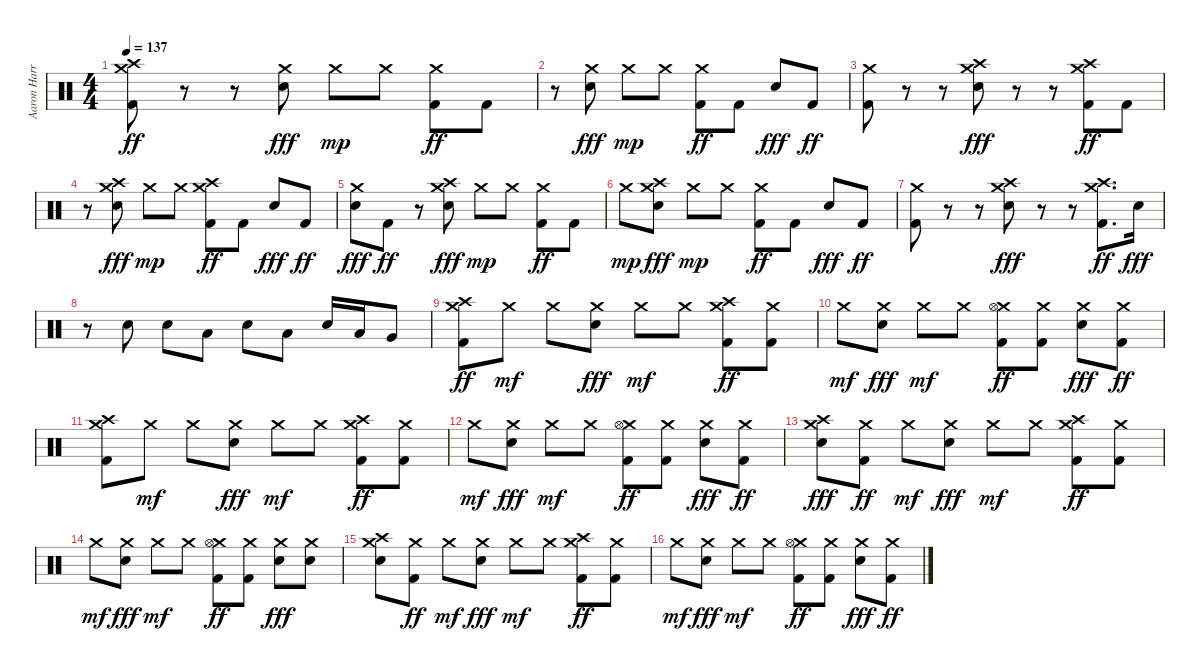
\track ("Aaron Harris" "Aaron Harr") {instrument percussion}
\staff {score}
\articulation defaults
\ts (4 4)
\tempo 137
\clef neutral
\ks c
("Crash medium (hit)" "Crash high (hit)" "Kick (hit) 2").8{dy ff} r.8 r.8 ("Crash medium (hit)" "Electric Snare (hit)").8{dy fff} "Crash medium (hit)".8{dy mp} "Crash medium (hit)".8 ("Crash medium (hit)" "Kick (hit) 2").8{dy ff} "Kick (hit) 2".8 |
r.8 ("Crash medium (hit)" "Electric Snare (hit)").8{dy fff} "Crash medium (hit)".8{dy mp} "Crash medium (hit)".8 ("Crash medium (hit)" "Kick (hit) 2").8{dy ff} "Kick (hit) 2".8 "Electric Snare (hit)".8{dy fff} "Kick (hit) 2".8{dy ff} |
("Crash medium (hit)" "Kick (hit) 2").8 r.8 r.8 ("Crash medium (hit)" "Crash high (hit)" "Electric Snare (hit)").8{dy fff} r.8 r.8 ("Crash medium (hit)" "Crash high (hit)" "Kick (hit) 2").8{dy ff} "Kick (hit) 2".8 |
r.8 ("Crash medium (hit)" "Crash high (hit)" "Electric Snare (hit)").8{dy fff} "Crash medium (hit)".8{dy mp} "Crash medium (hit)".8 ("Crash medium (hit)" "Crash high (hit)" "Kick (hit) 2").8{dy ff} "Kick (hit) 2".8 "Electric Snare (hit)".8{dy fff} "Kick (hit) 2".8{dy ff} |
("Crash medium (hit)" "Electric Snare (hit)").8{dy fff} "Kick (hit) 2".8{dy ff} r.8 ("Crash medium (hit)" "Crash high (hit)" "Electric Snare (hit)").8{dy fff} "Crash medium (hit)".8{dy mp} "Crash medium (hit)".8 ("Crash medium (hit)" "Kick (hit) 2").8{dy ff} "Kick (hit) 2".8 |
"Crash medium (hit)".8{dy mp} ("Crash medium (hit)" "Crash high (hit)" "Electric Snare (hit)").8{dy fff} "Crash medium (hit)".8{dy mp} "Crash medium (hit)".8 ("Crash medium (hit)" "Kick (hit) 2").8{dy ff} "Kick (hit) 2".8 "Electric Snare (hit)".8{dy fff} "Kick (hit) 2".8{dy ff} |
("Crash medium (hit)" "Kick (hit) 2").8 r.8 r.8 ("Crash medium (hit)" "Crash high (hit)" "Electric Snare (hit)").8{dy fff} r.8 r.8 ("Crash medium (hit)" "Crash high (hit)" "Kick (hit) 2").8{d dy ff} "Electric Snare (hit)".16{dy fff} |
r.8 "Electric Snare (hit)".8 "Electric Snare (hit)".8 "Low Tom (hit)".8 "Electric Snare (hit)".8 "Low Tom (hit)".8 "Electric Snare (hit)".16 "Low Tom (hit)".16 "Very Low Tom (hit)".8 |
("Crash medium (hit)" "Crash high (hit)" "Kick (hit) 2").8{dy ff} "Crash medium (hit)".8{dy mf} "Crash medium (hit)".8 ("Crash medium (hit)" "Electric Snare (hit)").8{dy fff} "Crash medium (hit)".8{dy mf} "Crash medium (hit)".8 ("Crash medium (hit)" "Crash high (hit)" "Kick (hit) 2").8{dy ff} ("Crash medium (hit)" "Kick (hit) 2").8 |
"Crash medium (hit)".8{dy mf} ("Crash medium (hit)" "Electric Snare (hit)").8{dy fff} "Crash medium (hit)".8{dy mf} "Crash medium (hit)".8 ("Crash medium (hit)" "Hi-Hat (open)" "Kick (hit) 2").8{dy ff} ("Crash medium (hit)" "Kick (hit) 2").8 ("Crash medium (hit)" "Electric Snare (hit)").8{dy fff} ("Crash medium (hit)" "Kick (hit) 2").8{dy ff} |
("Crash medium (hit)" "Crash high (hit)" "Kick (hit) 2").8 "Crash medium (hit)".8{dy mf} "Crash medium (hit)".8 ("Crash medium (hit)" "Electric Snare (hit)").8{dy fff} "Crash medium (hit)".8{dy mf} "Crash medium (hit)".8 ("Crash medium (hit)" "Crash high (hit)" "Kick (hit) 2").8{dy ff} ("Crash medium (hit)" "Kick (hit) 2").8 |
"Crash medium (hit)".8{dy mf} ("Crash medium (hit)" "Electric Snare (hit)").8{dy fff} "Crash medium (hit)".8{dy mf} "Crash medium (hit)".8 ("Crash medium (hit)" "Hi-Hat (open)" "Kick (hit) 2").8{dy ff} ("Crash medium (hit)" "Kick (hit) 2").8 ("Crash medium (hit)" "Electric Snare (hit)").8{dy fff} ("Crash medium (hit)" "Kick (hit) 2").8{dy ff} |
("Crash medium (hit)" "Crash high (hit)" "Electric Snare (hit)").8{dy fff} ("Crash medium (hit)" "Kick (hit) 2").8{dy ff} "Crash medium (hit)".8{dy mf} ("Crash medium (hit)" "Electric Snare (hit)").8{dy fff} "Crash medium (hit)".8{dy mf} "Crash medium (hit)".8 ("Crash medium (hit)" "Crash high (hit)" "Kick (hit) 2").8{dy ff} ("Crash medium (hit)" "Kick (hit) 2").8 |
"Crash medium (hit)".8{dy mf} ("Crash medium (hit)" "Electric Snare (hit)").8{dy fff} "Crash medium (hit)".8{dy mf} "Crash medium (hit)".8 ("Crash medium (hit)" "Hi-Hat (open)" "Kick (hit) 2").8{dy ff} ("Crash medium (hit)" "Kick (hit) 2").8 ("Crash medium (hit)" "Electric Snare (hit)").8{dy fff} ("Crash medium (hit)" "Electric Snare (hit)").8 |
("Crash medium (hit)" "Crash high (hit)" "Electric Snare (hit)").8 ("Crash medium (hit)" "Kick (hit) 2").8{dy ff} "Crash medium (hit)".8{dy mf} ("Crash medium (hit)" "Electric Snare (hit)").8{dy fff} "Crash medium (hit)".8{dy mf} "Crash medium (hit)".8 ("Crash medium (hit)" "Crash high (hit)" "Kick (hit) 2").8{dy ff} ("Crash medium (hit)" "Kick (hit) 2").8 |
"Crash medium (hit)".8{dy mf} ("Crash medium (hit)" "Electric Snare (hit)").8{dy fff} "Crash medium (hit)".8{dy mf} "Crash medium (hit)".8 ("Crash medium (hit)" "Hi-Hat (open)" "Kick (hit) 2").8{dy ff} ("Crash medium (hit)" "Kick (hit) 2").8 ("Crash medium (hit)" "Electric Snare (hit)").8{dy fff} ("Crash medium (hit)" "Kick (hit) 2").8{dy ff}
